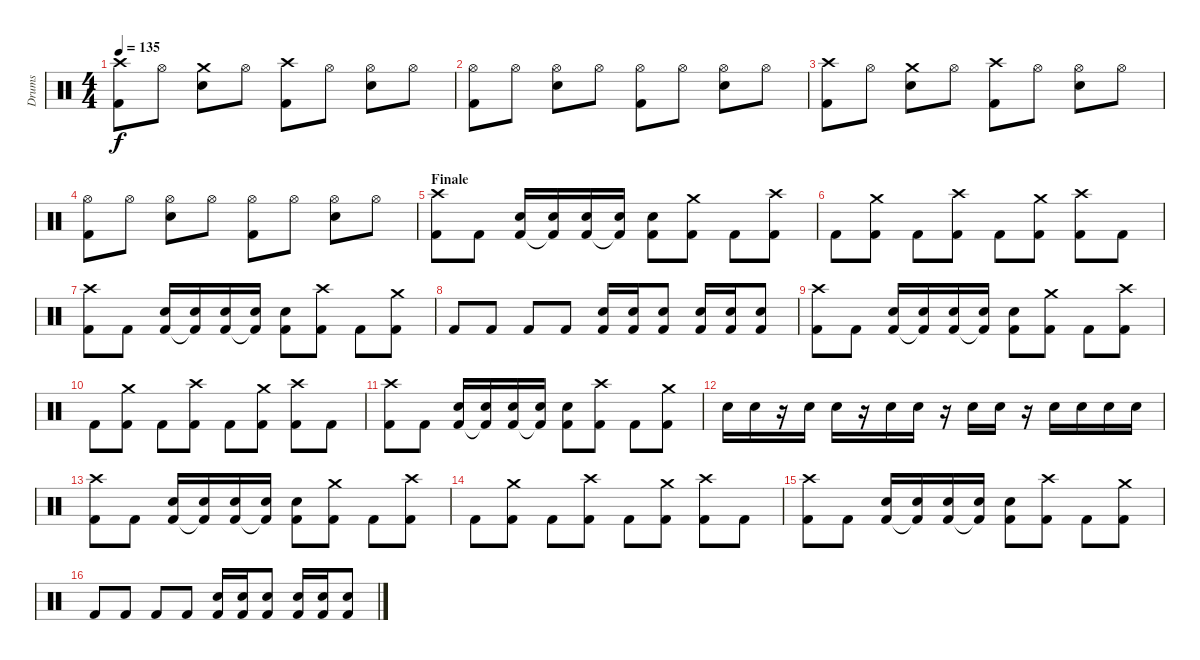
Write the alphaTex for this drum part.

\track ("Drums" "Drums") {instrument percussion}
\staff {score}
\articulation defaults
\ts (4 4)
\tempo 135
\clef neutral
\ks c
("Crash high (hit)" "Kick (hit) 2").8{dy f} "Hi-Hat (open)".8 ("Crash medium (hit)" "Snare (hit) 2").8 "Hi-Hat (open)".8 ("Crash high (hit)" "Kick (hit) 2").8 "Hi-Hat (open)".8 ("Hi-Hat (open)" "Snare (hit) 2").8 "Hi-Hat (open)".8 |
("Hi-Hat (open)" "Kick (hit) 2").8 "Hi-Hat (open)".8 ("Hi-Hat (open)" "Snare (hit) 2").8 "Hi-Hat (open)".8 ("Hi-Hat (open)" "Kick (hit) 2").8 "Hi-Hat (open)".8 ("Hi-Hat (open)" "Snare (hit) 2").8 "Hi-Hat (open)".8 |
("Crash high (hit)" "Kick (hit) 2").8 "Hi-Hat (open)".8 ("Crash medium (hit)" "Snare (hit) 2").8 "Hi-Hat (open)".8 ("Crash high (hit)" "Kick (hit) 2").8 "Hi-Hat (open)".8 ("Hi-Hat (open)" "Snare (hit) 2").8 "Hi-Hat (open)".8 |
("Hi-Hat (open)" "Kick (hit) 2").8 "Hi-Hat (open)".8 ("Hi-Hat (open)" "Snare (hit) 2").8 "Hi-Hat (open)".8 ("Hi-Hat (open)" "Kick (hit) 2").8 "Hi-Hat (open)".8 ("Hi-Hat (open)" "Snare (hit) 2").8 "Hi-Hat (open)".8 |
\section ("" "Finale")
("Crash high (hit)" "Kick (hit) 2").8 "Kick (hit) 2".8 ("Snare (hit) 2" "Kick (hit) 2").16 ("Snare (hit) 2" "Kick (hit) 2"{t}).16 ("Snare (hit) 2" "Kick (hit) 2").16 ("Snare (hit) 2" "Kick (hit) 2"{t}).16 ("Snare (hit) 2" "Kick (hit) 2").8 ("Crash medium (hit)" "Kick (hit) 2").8 "Kick (hit) 2".8 ("Crash high (hit)" "Kick (hit) 2").8 |
"Kick (hit) 2".8 ("Crash medium (hit)" "Kick (hit) 2").8 "Kick (hit) 2".8 ("Crash high (hit)" "Kick (hit) 2").8 "Kick (hit) 2".8 ("Crash medium (hit)" "Kick (hit) 2").8 ("Crash high (hit)" "Kick (hit) 2").8 "Kick (hit) 2".8 |
("Crash high (hit)" "Kick (hit) 2").8 "Kick (hit) 2".8 ("Snare (hit) 2" "Kick (hit) 2").16 ("Snare (hit) 2" "Kick (hit) 2"{t}).16 ("Snare (hit) 2" "Kick (hit) 2").16 ("Snare (hit) 2" "Kick (hit) 2"{t}).16 ("Snare (hit) 2" "Kick (hit) 2").8 ("Crash high (hit)" "Kick (hit) 2").8 "Kick (hit) 2".8 ("Crash medium (hit)" "Kick (hit) 2").8 |
"Kick (hit) 2".8 "Kick (hit) 2".8 "Kick (hit) 2".8 "Kick (hit) 2".8 ("Snare (hit) 2" "Kick (hit) 2").16 ("Snare (hit) 2" "Kick (hit) 2").16 ("Snare (hit) 2" "Kick (hit) 2").8 ("Snare (hit) 2" "Kick (hit) 2").16 ("Snare (hit) 2" "Kick (hit) 2").16 ("Snare (hit) 2" "Kick (hit) 2").8 |
("Crash high (hit)" "Kick (hit) 2").8 "Kick (hit) 2".8 ("Snare (hit) 2" "Kick (hit) 2").16 ("Snare (hit) 2" "Kick (hit) 2"{t}).16 ("Snare (hit) 2" "Kick (hit) 2").16 ("Snare (hit) 2" "Kick (hit) 2"{t}).16 ("Snare (hit) 2" "Kick (hit) 2").8 ("Crash medium (hit)" "Kick (hit) 2").8 "Kick (hit) 2".8 ("Crash high (hit)" "Kick (hit) 2").8 |
"Kick (hit) 2".8 ("Crash medium (hit)" "Kick (hit) 2").8 "Kick (hit) 2".8 ("Crash high (hit)" "Kick (hit) 2").8 "Kick (hit) 2".8 ("Crash medium (hit)" "Kick (hit) 2").8 ("Crash high (hit)" "Kick (hit) 2").8 "Kick (hit) 2".8 |
("Crash high (hit)" "Kick (hit) 2").8 "Kick (hit) 2".8 ("Snare (hit) 2" "Kick (hit) 2").16 ("Snare (hit) 2" "Kick (hit) 2"{t}).16 ("Snare (hit) 2" "Kick (hit) 2").16 ("Snare (hit) 2" "Kick (hit) 2"{t}).16 ("Snare (hit) 2" "Kick (hit) 2").8 ("Crash high (hit)" "Kick (hit) 2").8 "Kick (hit) 2".8 ("Crash medium (hit)" "Kick (hit) 2").8 |
"Snare (hit) 2".16 "Snare (hit) 2".16 r.16 "Snare (hit) 2".16 "Snare (hit) 2".16 r.16 "Snare (hit) 2".16 "Snare (hit) 2".16 r.16 "Snare (hit) 2".16 "Snare (hit) 2".16 r.16 "Snare (hit) 2".16 "Snare (hit) 2".16 "Snare (hit) 2".16 "Snare (hit) 2".16 |
("Crash high (hit)" "Kick (hit) 2").8 "Kick (hit) 2".8 ("Snare (hit) 2" "Kick (hit) 2").16 ("Snare (hit) 2" "Kick (hit) 2"{t}).16 ("Snare (hit) 2" "Kick (hit) 2").16 ("Snare (hit) 2" "Kick (hit) 2"{t}).16 ("Snare (hit) 2" "Kick (hit) 2").8 ("Crash medium (hit)" "Kick (hit) 2").8 "Kick (hit) 2".8 ("Crash high (hit)" "Kick (hit) 2").8 |
"Kick (hit) 2".8 ("Crash medium (hit)" "Kick (hit) 2").8 "Kick (hit) 2".8 ("Crash high (hit)" "Kick (hit) 2").8 "Kick (hit) 2".8 ("Crash medium (hit)" "Kick (hit) 2").8 ("Crash high (hit)" "Kick (hit) 2").8 "Kick (hit) 2".8 |
("Crash high (hit)" "Kick (hit) 2").8 "Kick (hit) 2".8 ("Snare (hit) 2" "Kick (hit) 2").16 ("Snare (hit) 2" "Kick (hit) 2"{t}).16 ("Snare (hit) 2" "Kick (hit) 2").16 ("Snare (hit) 2" "Kick (hit) 2"{t}).16 ("Snare (hit) 2" "Kick (hit) 2").8 ("Crash high (hit)" "Kick (hit) 2").8 "Kick (hit) 2".8 ("Crash medium (hit)" "Kick (hit) 2").8 |
"Kick (hit) 2".8 "Kick (hit) 2".8 "Kick (hit) 2".8 "Kick (hit) 2".8 ("Snare (hit) 2" "Kick (hit) 2").16 ("Snare (hit) 2" "Kick (hit) 2").16 ("Snare (hit) 2" "Kick (hit) 2").8 ("Snare (hit) 2" "Kick (hit) 2").16 ("Snare (hit) 2" "Kick (hit) 2").16 ("Snare (hit) 2" "Kick (hit) 2").8
